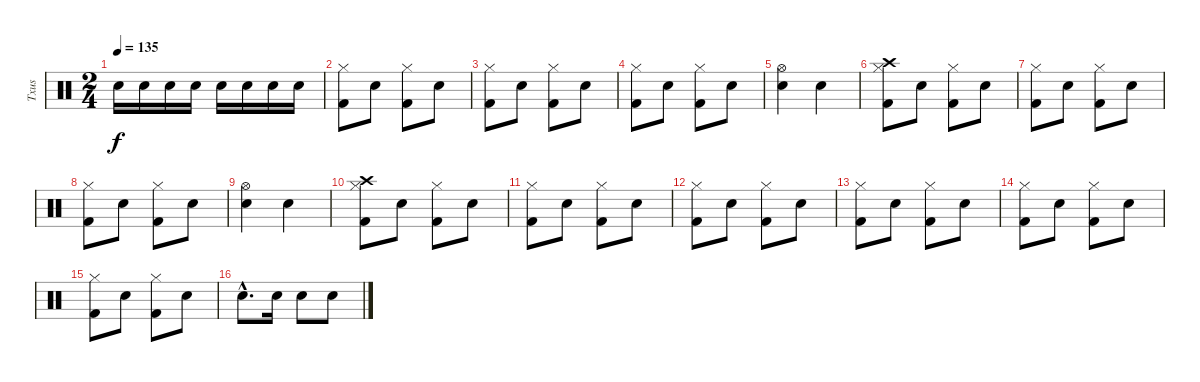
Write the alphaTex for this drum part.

\track ("Txus" "Txus") {instrument percussion}
\staff {score}
\articulation defaults
\ts (2 4)
\tempo 135
\clef neutral
\ks c "Electric Snare (hit)".16{dy f} "Electric Snare (hit)".16 "Electric Snare (hit)".16 "Electric Snare (hit)".16 "Electric Snare (hit)".16 "Electric Snare (hit)".16 "Electric Snare (hit)".16 "Electric Snare (hit)".16
|
("Hi-Hat (closed)" "Kick (hit) 2").8 "Snare (hit) 2".8 ("Hi-Hat (closed)" "Kick (hit) 2").8 "Snare (hit) 2".8 |
("Hi-Hat (closed)" "Kick (hit) 2").8 "Snare (hit) 2".8 ("Hi-Hat (closed)" "Kick (hit) 2").8 "Snare (hit) 2".8 |
("Hi-Hat (closed)" "Kick (hit) 2").8 "Snare (hit) 2".8 ("Hi-Hat (closed)" "Kick (hit) 2").8 "Snare (hit) 2".8 |
("Hi-Hat (open)" "Snare (hit) 2").4 "Snare (hit) 2".4 |
("Crash high (hit)" "Hi-Hat (closed)" "Kick (hit) 2").8 "Snare (hit) 2".8 ("Hi-Hat (closed)" "Kick (hit) 2").8 "Snare (hit) 2".8 |
("Hi-Hat (closed)" "Kick (hit) 2").8 "Snare (hit) 2".8 ("Hi-Hat (closed)" "Kick (hit) 2").8 "Snare (hit) 2".8 |
("Hi-Hat (closed)" "Kick (hit) 2").8 "Snare (hit) 2".8 ("Hi-Hat (closed)" "Kick (hit) 2").8 "Snare (hit) 2".8 |
("Hi-Hat (open)" "Snare (hit) 2").4 "Snare (hit) 2".4 |
("Crash high (hit)" "Hi-Hat (closed)" "Kick (hit) 2").8 "Snare (hit) 2".8 ("Hi-Hat (closed)" "Kick (hit) 2").8 "Snare (hit) 2".8 |
("Hi-Hat (closed)" "Kick (hit) 2").8 "Snare (hit) 2".8 ("Hi-Hat (closed)" "Kick (hit) 2").8 "Snare (hit) 2".8 |
("Hi-Hat (closed)" "Kick (hit) 2").8 "Snare (hit) 2".8 ("Hi-Hat (closed)" "Kick (hit) 2").8 "Snare (hit) 2".8 |
("Hi-Hat (closed)" "Kick (hit) 2").8 "Snare (hit) 2".8 ("Hi-Hat (closed)" "Kick (hit) 2").8 "Snare (hit) 2".8 |
("Hi-Hat (closed)" "Kick (hit) 2").8 "Snare (hit) 2".8 ("Hi-Hat (closed)" "Kick (hit) 2").8 "Snare (hit) 2".8 |
("Hi-Hat (closed)" "Kick (hit) 2").8 "Snare (hit) 2".8 ("Hi-Hat (closed)" "Kick (hit) 2").8 "Snare (hit) 2".8 |
"Electric Snare (hit)"{hac}.8{d} "Electric Snare (hit)".16 "Electric Snare (hit)".8 "Electric Snare (hit)".8
